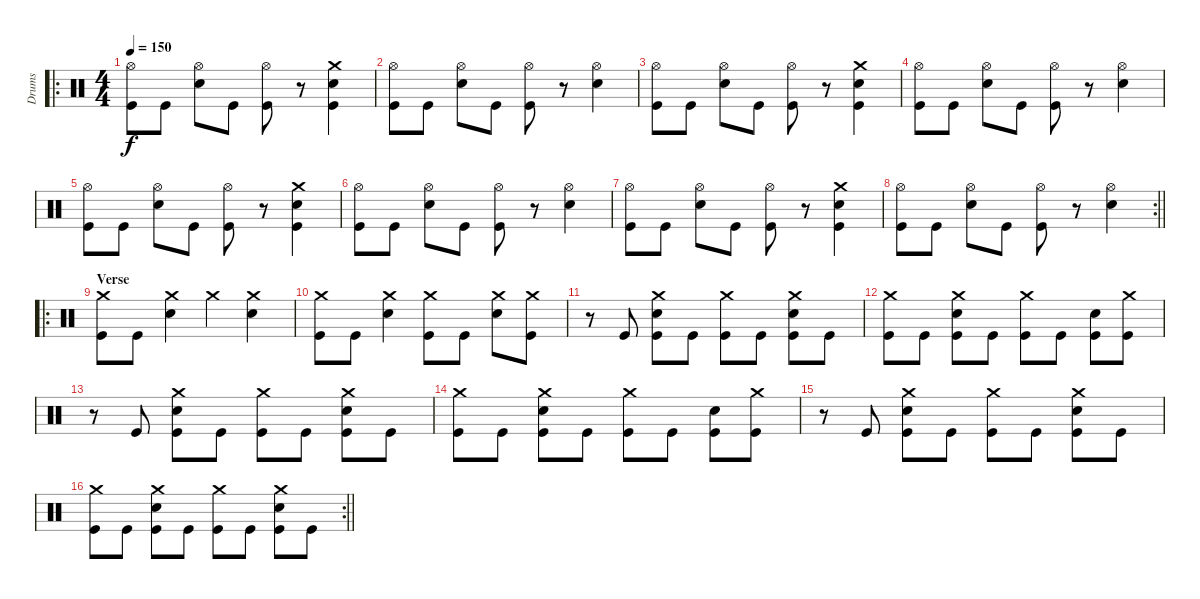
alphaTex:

\track ("Drums" "Drums") {instrument percussion}
\staff {score}
\articulation defaults
\ro
\ts (4 4)
\tempo 150
\clef neutral
\ks c
("Hi-Hat (open)" "Kick (hit)").8{dy f} "Kick (hit)".8 ("Hi-Hat (open)" "Snare (hit) 2").8 "Kick (hit)".8 ("Hi-Hat (open)" "Kick (hit)").8 r.8 ("Crash medium (hit)" "Snare (hit) 2" "Kick (hit)").4 |
("Hi-Hat (open)" "Kick (hit)").8 "Kick (hit)".8 ("Hi-Hat (open)" "Snare (hit) 2").8 "Kick (hit)".8 ("Hi-Hat (open)" "Kick (hit)").8 r.8 ("Hi-Hat (open)" "Snare (hit) 2").4 |
("Hi-Hat (open)" "Kick (hit)").8 "Kick (hit)".8 ("Hi-Hat (open)" "Snare (hit) 2").8 "Kick (hit)".8 ("Hi-Hat (open)" "Kick (hit)").8 r.8 ("Crash medium (hit)" "Snare (hit) 2" "Kick (hit)").4 |
("Hi-Hat (open)" "Kick (hit)").8 "Kick (hit)".8 ("Hi-Hat (open)" "Snare (hit) 2").8 "Kick (hit)".8 ("Hi-Hat (open)" "Kick (hit)").8 r.8 ("Hi-Hat (open)" "Snare (hit) 2").4 |
("Hi-Hat (open)" "Kick (hit)").8 "Kick (hit)".8 ("Hi-Hat (open)" "Snare (hit) 2").8 "Kick (hit)".8 ("Hi-Hat (open)" "Kick (hit)").8 r.8 ("Crash medium (hit)" "Snare (hit) 2" "Kick (hit)").4 |
("Hi-Hat (open)" "Kick (hit)").8 "Kick (hit)".8 ("Hi-Hat (open)" "Snare (hit) 2").8 "Kick (hit)".8 ("Hi-Hat (open)" "Kick (hit)").8 r.8 ("Hi-Hat (open)" "Snare (hit) 2").4 |
("Hi-Hat (open)" "Kick (hit)").8 "Kick (hit)".8 ("Hi-Hat (open)" "Snare (hit) 2").8 "Kick (hit)".8 ("Hi-Hat (open)" "Kick (hit)").8 r.8 ("Crash medium (hit)" "Snare (hit) 2" "Kick (hit)").4 |
\rc 2
\barLineRight lightlight
("Hi-Hat (open)" "Kick (hit)").8 "Kick (hit)".8 ("Hi-Hat (open)" "Snare (hit) 2").8 "Kick (hit)".8 ("Hi-Hat (open)" "Kick (hit)").8 r.8 ("Hi-Hat (open)" "Snare (hit) 2").4 |
\ro
\section ("" "Verse")
("Crash medium (hit)" "Kick (hit)").8 "Kick (hit)".8 ("Crash medium (hit)" "Snare (hit) 2").4 "Crash medium (hit)".4 ("Crash medium (hit)" "Snare (hit) 2").4 |
("Crash medium (hit)" "Kick (hit)").8 "Kick (hit)".8 ("Crash medium (hit)" "Snare (hit) 2").4 ("Crash medium (hit)" "Kick (hit)").8 "Kick (hit)".8 ("Crash medium (hit)" "Snare (hit) 2").8 ("Crash medium (hit)" "Kick (hit)").8 |
r.8 "Kick (hit)".8 ("Crash medium (hit)" "Snare (hit) 2" "Kick (hit)").8 "Kick (hit)".8 ("Crash medium (hit)" "Kick (hit)").8 "Kick (hit)".8 ("Crash medium (hit)" "Snare (hit) 2" "Kick (hit)").8 "Kick (hit)".8 |
("Crash medium (hit)" "Kick (hit)").8 "Kick (hit)".8 ("Crash medium (hit)" "Snare (hit) 2" "Kick (hit)").8 "Kick (hit)".8 ("Crash medium (hit)" "Kick (hit)").8 "Kick (hit)".8 ("Snare (hit) 2" "Kick (hit)").8 ("Crash medium (hit)" "Kick (hit)").8 |
r.8 "Kick (hit)".8 ("Crash medium (hit)" "Snare (hit) 2" "Kick (hit)").8 "Kick (hit)".8 ("Crash medium (hit)" "Kick (hit)").8 "Kick (hit)".8 ("Crash medium (hit)" "Snare (hit) 2" "Kick (hit)").8 "Kick (hit)".8 |
("Crash medium (hit)" "Kick (hit)").8 "Kick (hit)".8 ("Crash medium (hit)" "Snare (hit) 2" "Kick (hit)").8 "Kick (hit)".8 ("Crash medium (hit)" "Kick (hit)").8 "Kick (hit)".8 ("Snare (hit) 2" "Kick (hit)").8 ("Crash medium (hit)" "Kick (hit)").8 |
r.8 "Kick (hit)".8 ("Crash medium (hit)" "Snare (hit) 2" "Kick (hit)").8 "Kick (hit)".8 ("Crash medium (hit)" "Kick (hit)").8 "Kick (hit)".8 ("Crash medium (hit)" "Snare (hit) 2" "Kick (hit)").8 "Kick (hit)".8 |
\rc 2
\barLineRight lightlight
("Crash medium (hit)" "Kick (hit)").8 "Kick (hit)".8 ("Crash medium (hit)" "Snare (hit) 2" "Kick (hit)").8 "Kick (hit)".8 ("Crash medium (hit)" "Kick (hit)").8 "Kick (hit)".8 ("Crash medium (hit)" "Snare (hit) 2" "Kick (hit)").8 "Kick (hit)".8
